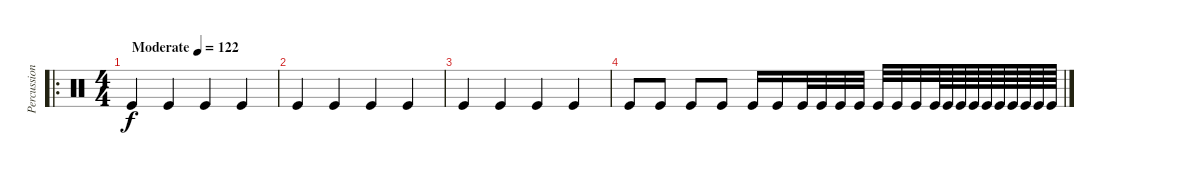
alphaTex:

\track ("Percussion" "Percussion") {instrument percussion}
\staff {score}
\articulation defaults
\ro
\ts (4 4)
\tempo (122 "Moderate")
\clef neutral
\ks c "Kick (hit)".4{dy f} "Kick (hit)".4 "Kick (hit)".4 "Kick (hit)".4
|
"Kick (hit)".4 "Kick (hit)".4 "Kick (hit)".4 "Kick (hit)".4 |
"Kick (hit)".4 "Kick (hit)".4 "Kick (hit)".4 "Kick (hit)".4 |
"Kick (hit)".8 "Kick (hit)".8 "Kick (hit)".8 "Kick (hit)".8 "Kick (hit)".16 "Kick (hit)".16 "Kick (hit)".32 "Kick (hit)".32 "Kick (hit)".32 "Kick (hit)".32 "Kick (hit)".32 "Kick (hit)".32 "Kick (hit)".32 "Kick (hit)".64 "Kick (hit)".64 "Kick (hit)".64 "Kick (hit)".64 "Kick (hit)".64 "Kick (hit)".64 "Kick (hit)".64 "Kick (hit)".64 "Kick (hit)".64 "Kick (hit)".64
